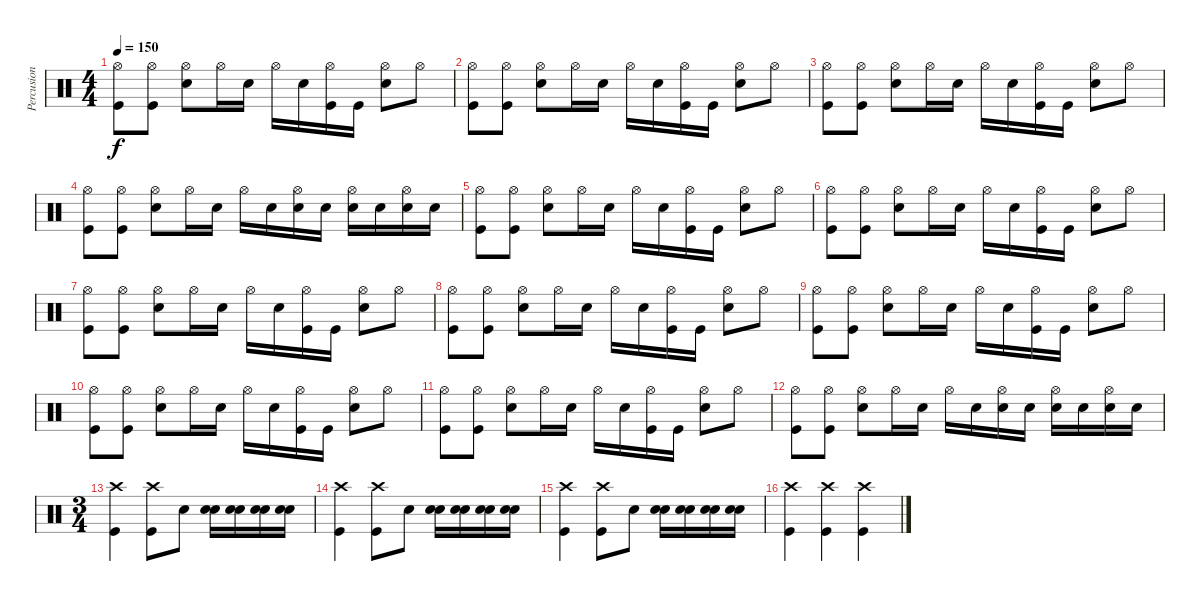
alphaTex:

\track ("Percusion" "Percusion") {instrument percussion}
\staff {score}
\articulation defaults
\ts (4 4)
\tempo 150
\clef neutral
\ks c
("Hi-Hat (open)" "Kick (hit)").8{dy f} ("Hi-Hat (open)" "Kick (hit)").8 ("Hi-Hat (open)" "Electric Snare (hit)").8 "Hi-Hat (open)".16 "Electric Snare (hit)".16 "Hi-Hat (open)".16 "Electric Snare (hit)".16 ("Hi-Hat (open)" "Kick (hit)").16 "Kick (hit)".16 ("Hi-Hat (open)" "Electric Snare (hit)").8 "Hi-Hat (open)".8 |
("Hi-Hat (open)" "Kick (hit)").8 ("Hi-Hat (open)" "Kick (hit)").8 ("Hi-Hat (open)" "Electric Snare (hit)").8 "Hi-Hat (open)".16 "Electric Snare (hit)".16 "Hi-Hat (open)".16 "Electric Snare (hit)".16 ("Hi-Hat (open)" "Kick (hit)").16 "Kick (hit)".16 ("Hi-Hat (open)" "Electric Snare (hit)").8 "Hi-Hat (open)".8 |
("Hi-Hat (open)" "Kick (hit)").8 ("Hi-Hat (open)" "Kick (hit)").8 ("Hi-Hat (open)" "Electric Snare (hit)").8 "Hi-Hat (open)".16 "Electric Snare (hit)".16 "Hi-Hat (open)".16 "Electric Snare (hit)".16 ("Hi-Hat (open)" "Kick (hit)").16 "Kick (hit)".16 ("Hi-Hat (open)" "Electric Snare (hit)").8 "Hi-Hat (open)".8 |
("Hi-Hat (open)" "Kick (hit)").8 ("Hi-Hat (open)" "Kick (hit)").8 ("Hi-Hat (open)" "Electric Snare (hit)").8 "Hi-Hat (open)".16 "Electric Snare (hit)".16 "Hi-Hat (open)".16 "Electric Snare (hit)".16 ("Hi-Hat (open)" "Electric Snare (hit)").16 "Electric Snare (hit)".16 ("Hi-Hat (open)" "Electric Snare (hit)").16 "Electric Snare (hit)".16 ("Hi-Hat (open)" "Electric Snare (hit)").16 "Electric Snare (hit)".16 |
("Hi-Hat (open)" "Kick (hit)").8 ("Hi-Hat (open)" "Kick (hit)").8 ("Hi-Hat (open)" "Electric Snare (hit)").8 "Hi-Hat (open)".16 "Electric Snare (hit)".16 "Hi-Hat (open)".16 "Electric Snare (hit)".16 ("Hi-Hat (open)" "Kick (hit)").16 "Kick (hit)".16 ("Hi-Hat (open)" "Electric Snare (hit)").8 "Hi-Hat (open)".8 |
("Hi-Hat (open)" "Kick (hit)").8 ("Hi-Hat (open)" "Kick (hit)").8 ("Hi-Hat (open)" "Electric Snare (hit)").8 "Hi-Hat (open)".16 "Electric Snare (hit)".16 "Hi-Hat (open)".16 "Electric Snare (hit)".16 ("Hi-Hat (open)" "Kick (hit)").16 "Kick (hit)".16 ("Hi-Hat (open)" "Electric Snare (hit)").8 "Hi-Hat (open)".8 |
("Hi-Hat (open)" "Kick (hit)").8 ("Hi-Hat (open)" "Kick (hit)").8 ("Hi-Hat (open)" "Electric Snare (hit)").8 "Hi-Hat (open)".16 "Electric Snare (hit)".16 "Hi-Hat (open)".16 "Electric Snare (hit)".16 ("Hi-Hat (open)" "Kick (hit)").16 "Kick (hit)".16 ("Hi-Hat (open)" "Electric Snare (hit)").8 "Hi-Hat (open)".8 |
("Hi-Hat (open)" "Kick (hit)").8 ("Hi-Hat (open)" "Kick (hit)").8 ("Hi-Hat (open)" "Electric Snare (hit)").8 "Hi-Hat (open)".16 "Electric Snare (hit)".16 "Hi-Hat (open)".16 "Electric Snare (hit)".16 ("Hi-Hat (open)" "Kick (hit)").16 "Kick (hit)".16 ("Hi-Hat (open)" "Electric Snare (hit)").8 "Hi-Hat (open)".8 |
("Hi-Hat (open)" "Kick (hit)").8 ("Hi-Hat (open)" "Kick (hit)").8 ("Hi-Hat (open)" "Electric Snare (hit)").8 "Hi-Hat (open)".16 "Electric Snare (hit)".16 "Hi-Hat (open)".16 "Electric Snare (hit)".16 ("Hi-Hat (open)" "Kick (hit)").16 "Kick (hit)".16 ("Hi-Hat (open)" "Electric Snare (hit)").8 "Hi-Hat (open)".8 |
("Hi-Hat (open)" "Kick (hit)").8 ("Hi-Hat (open)" "Kick (hit)").8 ("Hi-Hat (open)" "Electric Snare (hit)").8 "Hi-Hat (open)".16 "Electric Snare (hit)".16 "Hi-Hat (open)".16 "Electric Snare (hit)".16 ("Hi-Hat (open)" "Kick (hit)").16 "Kick (hit)".16 ("Hi-Hat (open)" "Electric Snare (hit)").8 "Hi-Hat (open)".8 |
("Hi-Hat (open)" "Kick (hit)").8 ("Hi-Hat (open)" "Kick (hit)").8 ("Hi-Hat (open)" "Electric Snare (hit)").8 "Hi-Hat (open)".16 "Electric Snare (hit)".16 "Hi-Hat (open)".16 "Electric Snare (hit)".16 ("Hi-Hat (open)" "Kick (hit)").16 "Kick (hit)".16 ("Hi-Hat (open)" "Electric Snare (hit)").8 "Hi-Hat (open)".8 |
("Hi-Hat (open)" "Kick (hit)").8 ("Hi-Hat (open)" "Kick (hit)").8 ("Hi-Hat (open)" "Electric Snare (hit)").8 "Hi-Hat (open)".16 "Electric Snare (hit)".16 "Hi-Hat (open)".16 "Electric Snare (hit)".16 ("Hi-Hat (open)" "Electric Snare (hit)").16 "Electric Snare (hit)".16 ("Hi-Hat (open)" "Electric Snare (hit)").16 "Electric Snare (hit)".16 ("Hi-Hat (open)" "Electric Snare (hit)").16 "Electric Snare (hit)".16 |
\ts (3 4)
("Crash high (hit)" "Kick (hit)").4 ("Crash high (hit)" "Kick (hit)").8 "Snare (hit) 2".8 ("Snare (hit) 2" "Electric Snare (hit)").16 ("Snare (hit) 2" "Electric Snare (hit)").16 ("Snare (hit) 2" "Electric Snare (hit)").16 ("Snare (hit) 2" "Electric Snare (hit)").16 |
("Crash high (hit)" "Kick (hit)").4 ("Crash high (hit)" "Kick (hit)").8 "Snare (hit) 2".8 ("Snare (hit) 2" "Electric Snare (hit)").16 ("Snare (hit) 2" "Electric Snare (hit)").16 ("Snare (hit) 2" "Electric Snare (hit)").16 ("Snare (hit) 2" "Electric Snare (hit)").16 |
("Crash high (hit)" "Kick (hit)").4 ("Crash high (hit)" "Kick (hit)").8 "Snare (hit) 2".8 ("Snare (hit) 2" "Electric Snare (hit)").16 ("Snare (hit) 2" "Electric Snare (hit)").16 ("Snare (hit) 2" "Electric Snare (hit)").16 ("Snare (hit) 2" "Electric Snare (hit)").16 |
("Crash high (hit)" "Kick (hit)").4 ("Crash high (hit)" "Kick (hit)").4 ("Crash high (hit)" "Kick (hit)").4
